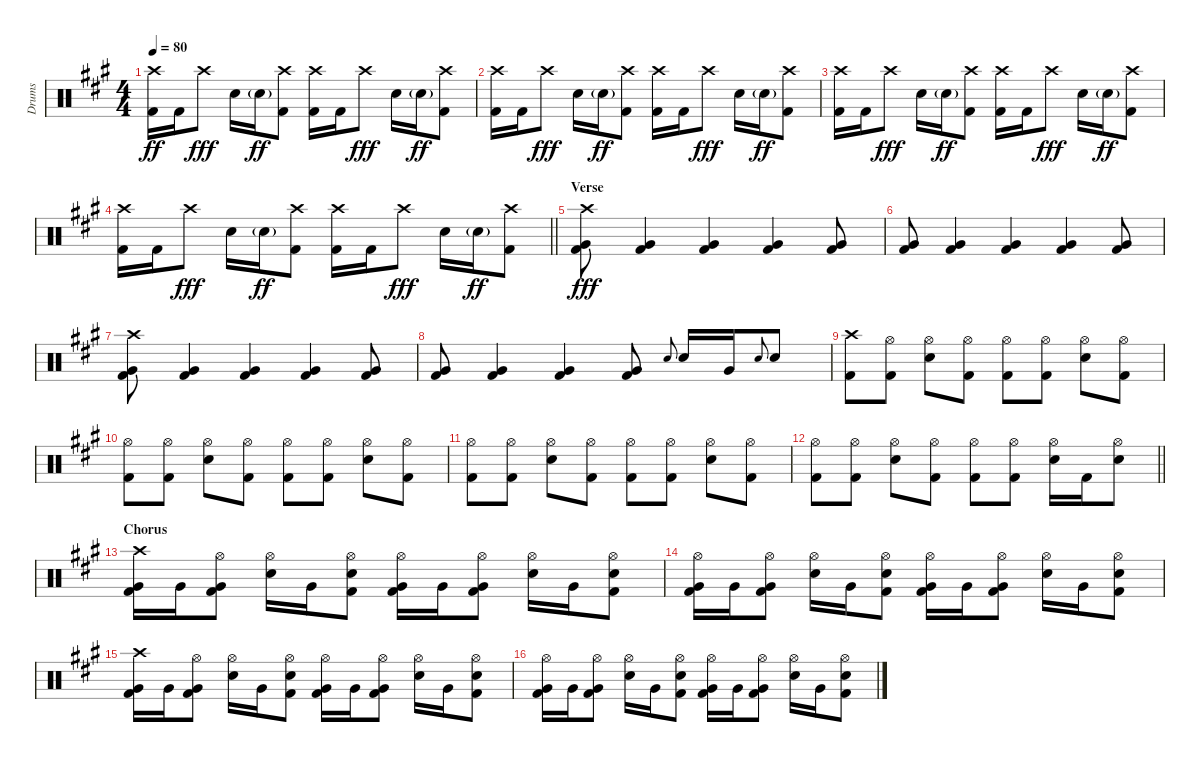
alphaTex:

\track ("Drums" "Drums") {instrument percussion}
\staff {score}
\articulation defaults
\ts (4 4)
\tempo 80
\clef neutral
\ks f#minor
("Crash high (hit)" "Kick (hit) 2").16{dy ff} "Kick (hit) 2".16 "Crash high (hit)".8{dy fff} "Electric Snare (hit)".16 "Electric Snare (hit)"{g}.16{dy ff} ("Crash high (hit)" "Kick (hit) 2").8 ("Crash high (hit)" "Kick (hit) 2").16 "Kick (hit) 2".16 "Crash high (hit)".8{dy fff} "Electric Snare (hit)".16 "Electric Snare (hit)"{g}.16{dy ff} ("Crash high (hit)" "Kick (hit) 2").8 |
("Crash high (hit)" "Kick (hit) 2").16 "Kick (hit) 2".16 "Crash high (hit)".8{dy fff} "Electric Snare (hit)".16 "Electric Snare (hit)"{g}.16{dy ff} ("Crash high (hit)" "Kick (hit) 2").8 ("Crash high (hit)" "Kick (hit) 2").16 "Kick (hit) 2".16 "Crash high (hit)".8{dy fff} "Electric Snare (hit)".16 "Electric Snare (hit)"{g}.16{dy ff} ("Crash high (hit)" "Kick (hit) 2").8 |
("Crash high (hit)" "Kick (hit) 2").16 "Kick (hit) 2".16 "Crash high (hit)".8{dy fff} "Electric Snare (hit)".16 "Electric Snare (hit)"{g}.16{dy ff} ("Crash high (hit)" "Kick (hit) 2").8 ("Crash high (hit)" "Kick (hit) 2").16 "Kick (hit) 2".16 "Crash high (hit)".8{dy fff} "Electric Snare (hit)".16 "Electric Snare (hit)"{g}.16{dy ff} ("Crash high (hit)" "Kick (hit) 2").8 |
\barLineRight lightlight
("Crash high (hit)" "Kick (hit) 2").16 "Kick (hit) 2".16 "Crash high (hit)".8{dy fff} "Electric Snare (hit)".16 "Electric Snare (hit)"{g}.16{dy ff} ("Crash high (hit)" "Kick (hit) 2").8 ("Crash high (hit)" "Kick (hit) 2").16 "Kick (hit) 2".16 "Crash high (hit)".8{dy fff} "Electric Snare (hit)".16 "Electric Snare (hit)"{g}.16{dy ff} ("Crash high (hit)" "Kick (hit) 2").8 |
\section ("" "Verse")
("Crash high (hit)" "Very Low Tom (hit)" "Kick (hit) 2").8{dy fff} ("Very Low Tom (hit)" "Kick (hit) 2").4 ("Very Low Tom (hit)" "Kick (hit) 2").4 ("Very Low Tom (hit)" "Kick (hit) 2").4 ("Very Low Tom (hit)" "Kick (hit) 2").8 |
("Very Low Tom (hit)" "Kick (hit) 2").8 ("Very Low Tom (hit)" "Kick (hit) 2").4 ("Very Low Tom (hit)" "Kick (hit) 2").4 ("Very Low Tom (hit)" "Kick (hit) 2").4 ("Very Low Tom (hit)" "Kick (hit) 2").8 |
("Crash high (hit)" "Very Low Tom (hit)" "Kick (hit) 2").8 ("Very Low Tom (hit)" "Kick (hit) 2").4 ("Very Low Tom (hit)" "Kick (hit) 2").4 ("Very Low Tom (hit)" "Kick (hit) 2").4 ("Very Low Tom (hit)" "Kick (hit) 2").8 |
("Very Low Tom (hit)" "Kick (hit) 2").8 ("Very Low Tom (hit)" "Kick (hit) 2").4 ("Very Low Tom (hit)" "Kick (hit) 2").4 ("Very Low Tom (hit)" "Kick (hit) 2").8 "Electric Snare (hit)".8{gr onbeat} "Electric Snare (hit)".16 "Very Low Tom (hit)".16 "Electric Snare (hit)".8{gr onbeat} "Electric Snare (hit)".8 |
("Crash high (hit)" "Kick (hit) 2").8 ("Hi-Hat (open)" "Kick (hit) 2").8 ("Hi-Hat (open)" "Electric Snare (hit)").8 ("Hi-Hat (open)" "Kick (hit) 2").8 ("Hi-Hat (open)" "Kick (hit) 2").8 ("Hi-Hat (open)" "Kick (hit) 2").8 ("Hi-Hat (open)" "Electric Snare (hit)").8 ("Hi-Hat (open)" "Kick (hit) 2").8 |
("Hi-Hat (open)" "Kick (hit) 2").8 ("Hi-Hat (open)" "Kick (hit) 2").8 ("Hi-Hat (open)" "Electric Snare (hit)").8 ("Hi-Hat (open)" "Kick (hit) 2").8 ("Hi-Hat (open)" "Kick (hit) 2").8 ("Hi-Hat (open)" "Kick (hit) 2").8 ("Hi-Hat (open)" "Electric Snare (hit)").8 ("Hi-Hat (open)" "Kick (hit) 2").8 |
("Hi-Hat (open)" "Kick (hit) 2").8 ("Hi-Hat (open)" "Kick (hit) 2").8 ("Hi-Hat (open)" "Electric Snare (hit)").8 ("Hi-Hat (open)" "Kick (hit) 2").8 ("Hi-Hat (open)" "Kick (hit) 2").8 ("Hi-Hat (open)" "Kick (hit) 2").8 ("Hi-Hat (open)" "Electric Snare (hit)").8 ("Hi-Hat (open)" "Kick (hit) 2").8 |
\barLineRight lightlight
("Hi-Hat (open)" "Kick (hit) 2").8 ("Hi-Hat (open)" "Kick (hit) 2").8 ("Hi-Hat (open)" "Electric Snare (hit)").8 ("Hi-Hat (open)" "Kick (hit) 2").8 ("Hi-Hat (open)" "Kick (hit) 2").8 ("Hi-Hat (open)" "Kick (hit) 2").8 ("Hi-Hat (open)" "Electric Snare (hit)").16 "Kick (hit) 2".16 ("Hi-Hat (open)" "Electric Snare (hit)").8 |
\section ("" "Chorus")
("Crash high (hit)" "Very Low Tom (hit)" "Kick (hit) 2").16 "Very Low Tom (hit)".16 ("Hi-Hat (open)" "Very Low Tom (hit)" "Kick (hit) 2").8 ("Hi-Hat (open)" "Electric Snare (hit)").16 "Very Low Tom (hit)".16 ("Hi-Hat (open)" "Electric Snare (hit)" "Kick (hit) 2").8 ("Hi-Hat (open)" "Very Low Tom (hit)" "Kick (hit) 2").16 "Very Low Tom (hit)".16 ("Hi-Hat (open)" "Very Low Tom (hit)" "Kick (hit) 2").8 ("Hi-Hat (open)" "Electric Snare (hit)").16 "Very Low Tom (hit)".16 ("Hi-Hat (open)" "Electric Snare (hit)" "Kick (hit) 2").8 |
("Hi-Hat (open)" "Very Low Tom (hit)" "Kick (hit) 2").16 "Very Low Tom (hit)".16 ("Hi-Hat (open)" "Very Low Tom (hit)" "Kick (hit) 2").8 ("Hi-Hat (open)" "Electric Snare (hit)").16 "Very Low Tom (hit)".16 ("Hi-Hat (open)" "Electric Snare (hit)" "Kick (hit) 2").8 ("Hi-Hat (open)" "Very Low Tom (hit)" "Kick (hit) 2").16 "Very Low Tom (hit)".16 ("Hi-Hat (open)" "Very Low Tom (hit)" "Kick (hit) 2").8 ("Hi-Hat (open)" "Electric Snare (hit)").16 "Very Low Tom (hit)".16 ("Hi-Hat (open)" "Electric Snare (hit)" "Kick (hit) 2").8 |
("Crash high (hit)" "Very Low Tom (hit)" "Kick (hit) 2").16 "Very Low Tom (hit)".16 ("Hi-Hat (open)" "Very Low Tom (hit)" "Kick (hit) 2").8 ("Hi-Hat (open)" "Electric Snare (hit)").16 "Very Low Tom (hit)".16 ("Hi-Hat (open)" "Electric Snare (hit)" "Kick (hit) 2").8 ("Hi-Hat (open)" "Very Low Tom (hit)" "Kick (hit) 2").16 "Very Low Tom (hit)".16 ("Hi-Hat (open)" "Very Low Tom (hit)" "Kick (hit) 2").8 ("Hi-Hat (open)" "Electric Snare (hit)").16 "Very Low Tom (hit)".16 ("Hi-Hat (open)" "Electric Snare (hit)" "Kick (hit) 2").8 |
("Hi-Hat (open)" "Very Low Tom (hit)" "Kick (hit) 2").16 "Very Low Tom (hit)".16 ("Hi-Hat (open)" "Very Low Tom (hit)" "Kick (hit) 2").8 ("Hi-Hat (open)" "Electric Snare (hit)").16 "Very Low Tom (hit)".16 ("Hi-Hat (open)" "Electric Snare (hit)" "Kick (hit) 2").8 ("Hi-Hat (open)" "Very Low Tom (hit)" "Kick (hit) 2").16 "Very Low Tom (hit)".16 ("Hi-Hat (open)" "Very Low Tom (hit)" "Kick (hit) 2").8 ("Hi-Hat (open)" "Electric Snare (hit)").16 "Very Low Tom (hit)".16 ("Hi-Hat (open)" "Electric Snare (hit)" "Kick (hit) 2").8
